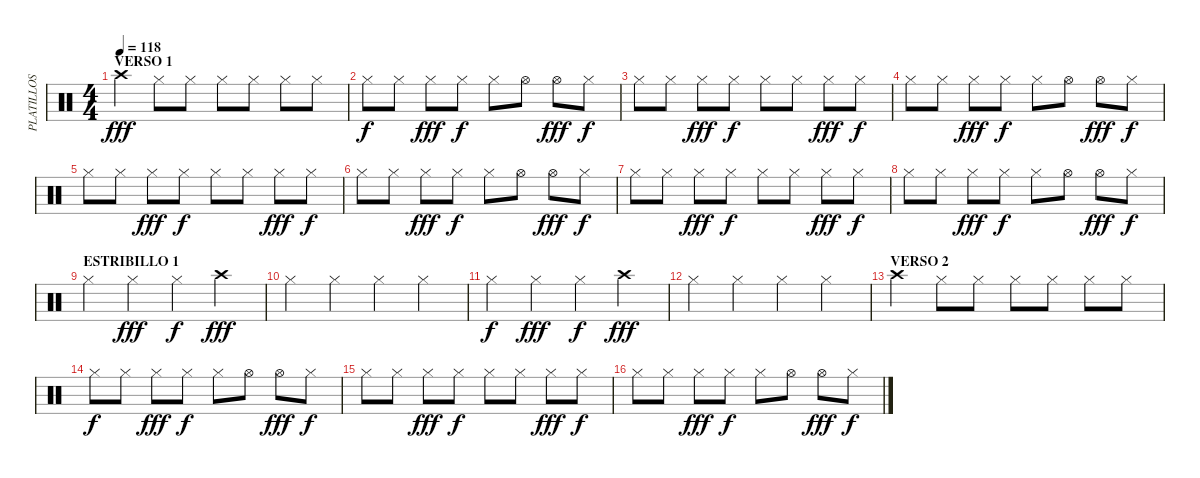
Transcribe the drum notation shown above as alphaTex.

\track ("PLATILLOS" "PLATILLOS") {instrument percussion}
\staff {score}
\articulation defaults
\ts (4 4)
\section ("" "VERSO 1")
\tempo 118
\clef neutral
\ks c "Crash high (hit)".4{dy fff} "Hi-Hat (closed)".8 "Hi-Hat (closed)".8 "Hi-Hat (closed)".8 "Hi-Hat (closed)".8 "Hi-Hat (closed)".8 "Hi-Hat (closed)".8
|
"Hi-Hat (closed)".8{dy f} "Hi-Hat (closed)".8 "Hi-Hat (closed)".8{dy fff} "Hi-Hat (closed)".8{dy f} "Hi-Hat (closed)".8 "Hi-Hat (open)".8 "Hi-Hat (open)".8{dy fff} "Hi-Hat (closed)".8{dy f} |
"Hi-Hat (closed)".8 "Hi-Hat (closed)".8 "Hi-Hat (closed)".8{dy fff} "Hi-Hat (closed)".8{dy f} "Hi-Hat (closed)".8 "Hi-Hat (closed)".8 "Hi-Hat (closed)".8{dy fff} "Hi-Hat (closed)".8{dy f} |
"Hi-Hat (closed)".8 "Hi-Hat (closed)".8 "Hi-Hat (closed)".8{dy fff} "Hi-Hat (closed)".8{dy f} "Hi-Hat (closed)".8 "Hi-Hat (open)".8 "Hi-Hat (open)".8{dy fff} "Hi-Hat (closed)".8{dy f} |
"Hi-Hat (closed)".8 "Hi-Hat (closed)".8 "Hi-Hat (closed)".8{dy fff} "Hi-Hat (closed)".8{dy f} "Hi-Hat (closed)".8 "Hi-Hat (closed)".8 "Hi-Hat (closed)".8{dy fff} "Hi-Hat (closed)".8{dy f} |
"Hi-Hat (closed)".8 "Hi-Hat (closed)".8 "Hi-Hat (closed)".8{dy fff} "Hi-Hat (closed)".8{dy f} "Hi-Hat (closed)".8 "Hi-Hat (open)".8 "Hi-Hat (open)".8{dy fff} "Hi-Hat (closed)".8{dy f} |
"Hi-Hat (closed)".8 "Hi-Hat (closed)".8 "Hi-Hat (closed)".8{dy fff} "Hi-Hat (closed)".8{dy f} "Hi-Hat (closed)".8 "Hi-Hat (closed)".8 "Hi-Hat (closed)".8{dy fff} "Hi-Hat (closed)".8{dy f} |
"Hi-Hat (closed)".8 "Hi-Hat (closed)".8 "Hi-Hat (closed)".8{dy fff} "Hi-Hat (closed)".8{dy f} "Hi-Hat (closed)".8 "Hi-Hat (open)".8 "Hi-Hat (open)".8{dy fff} "Hi-Hat (closed)".8{dy f} |
\section ("" "ESTRIBILLO 1")
"Hi-Hat (closed)".4 "Hi-Hat (closed)".4{dy fff} "Hi-Hat (closed)".4{dy f} "Crash high (hit)".4{dy fff} |
"Hi-Hat (closed)".4 "Hi-Hat (closed)".4 "Hi-Hat (closed)".4 "Hi-Hat (closed)".4 |
"Hi-Hat (closed)".4{dy f} "Hi-Hat (closed)".4{dy fff} "Hi-Hat (closed)".4{dy f} "Crash high (hit)".4{dy fff} |
"Hi-Hat (closed)".4 "Hi-Hat (closed)".4 "Hi-Hat (closed)".4 "Hi-Hat (closed)".4 |
\section ("" "VERSO 2")
"Crash high (hit)".4 "Hi-Hat (closed)".8 "Hi-Hat (closed)".8 "Hi-Hat (closed)".8 "Hi-Hat (closed)".8 "Hi-Hat (closed)".8 "Hi-Hat (closed)".8 |
"Hi-Hat (closed)".8{dy f} "Hi-Hat (closed)".8 "Hi-Hat (closed)".8{dy fff} "Hi-Hat (closed)".8{dy f} "Hi-Hat (closed)".8 "Hi-Hat (open)".8 "Hi-Hat (open)".8{dy fff} "Hi-Hat (closed)".8{dy f} |
"Hi-Hat (closed)".8 "Hi-Hat (closed)".8 "Hi-Hat (closed)".8{dy fff} "Hi-Hat (closed)".8{dy f} "Hi-Hat (closed)".8 "Hi-Hat (closed)".8 "Hi-Hat (closed)".8{dy fff} "Hi-Hat (closed)".8{dy f} |
"Hi-Hat (closed)".8 "Hi-Hat (closed)".8 "Hi-Hat (closed)".8{dy fff} "Hi-Hat (closed)".8{dy f} "Hi-Hat (closed)".8 "Hi-Hat (open)".8 "Hi-Hat (open)".8{dy fff} "Hi-Hat (closed)".8{dy f}
